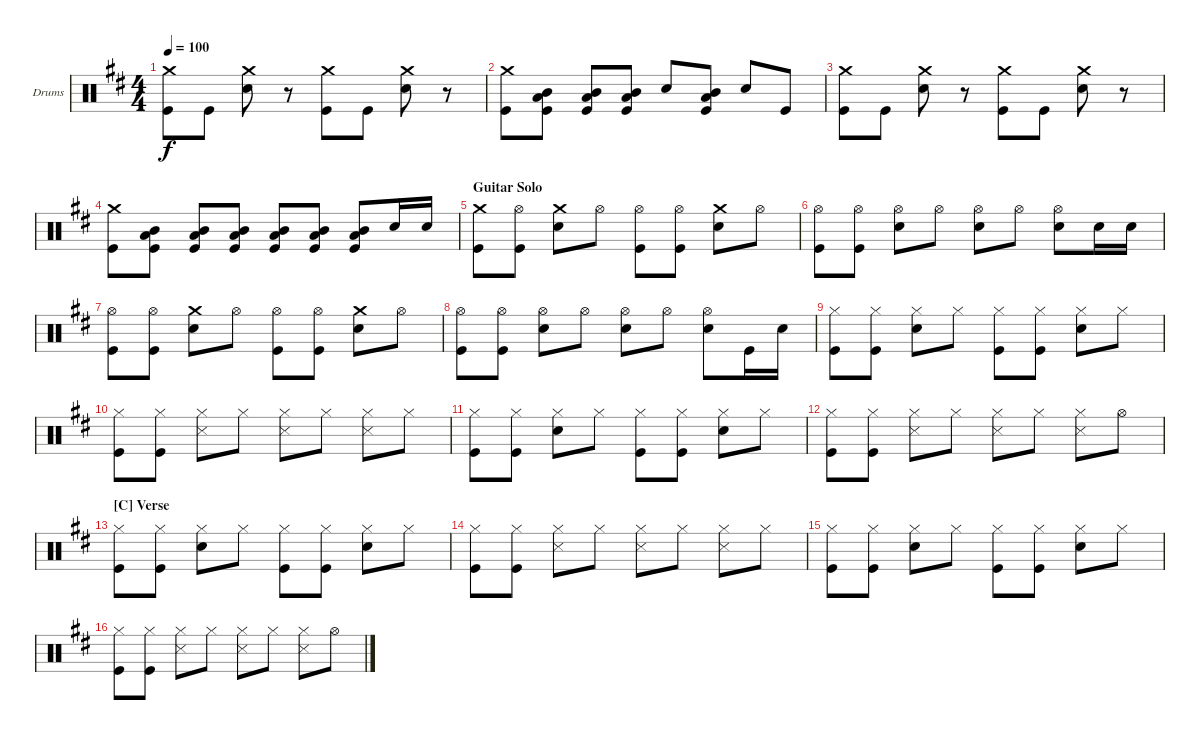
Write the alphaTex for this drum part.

\defaultSystemsLayout 4
\bracketExtendMode groupsimilarinstruments
\firstSystemTrackNameOrientation horizontal
\otherSystemsTrackNameOrientation horizontal
\track ("Drumkit" "Drums") {instrument percussion}
\staff {score}
\articulation defaults
\ts (4 4)
\tempo 100
\clef neutral
\scale
1.05044
\ks d
("Crash medium (hit)" "Kick (hit)").8{dy f} "Kick (hit)".8 ("Crash medium (hit)" "Snare (hit) 2").8 r.8 ("Crash medium (hit)" "Kick (hit)").8 "Kick (hit)".8 ("Crash medium (hit)" "Snare (hit) 2").8 r.8 |
\scale
0.949559 ("Crash medium (hit)" "Kick (hit)").8 ("Mid Tom (hit)" "Low Tom (hit)" "Kick (hit)").8 ("Mid Tom (hit)" "Low Tom (hit)" "Kick (hit)").8 ("Mid Tom (hit)" "Low Tom (hit)" "Kick (hit)").8 "Snare (hit) 2".8 ("Mid Tom (hit)" "Low Tom (hit)" "Kick (hit)").8 "Snare (hit) 2".8 "Kick (hit)".8 |
\scale
1.05044 ("Crash medium (hit)" "Kick (hit)").8 "Kick (hit)".8 ("Crash medium (hit)" "Snare (hit) 2").8 r.8 ("Crash medium (hit)" "Kick (hit)").8 "Kick (hit)".8 ("Crash medium (hit)" "Snare (hit) 2").8 r.8 |
\scale
0.949559 ("Crash medium (hit)" "Kick (hit)").8 ("Mid Tom (hit)" "Low Tom (hit)" "Kick (hit)").8 ("Mid Tom (hit)" "Low Tom (hit)" "Kick (hit)").8 ("Mid Tom (hit)" "Low Tom (hit)" "Kick (hit)").8 ("Mid Tom (hit)" "Low Tom (hit)" "Kick (hit)").8 ("Mid Tom (hit)" "Low Tom (hit)" "Kick (hit)").8 ("Mid Tom (hit)" "Low Tom (hit)" "Kick (hit)").8 "Snare (hit) 2".16 "Snare (hit) 2".16 |
\section ("" "Guitar Solo")
\scale
1.05044 ("Crash medium (hit)" "Kick (hit)").8 ("Hi-Hat (open)" "Kick (hit)").8 ("Crash medium (hit)" "Snare (hit) 2").8 "Hi-Hat (open)".8 ("Hi-Hat (open)" "Kick (hit)").8 ("Hi-Hat (open)" "Kick (hit)").8 ("Crash medium (hit)" "Snare (hit) 2").8 "Hi-Hat (open)".8 |
\scale
0.949559 ("Hi-Hat (open)" "Kick (hit)").8 ("Hi-Hat (open)" "Kick (hit)").8 ("Hi-Hat (open)" "Snare (hit) 2").8 "Hi-Hat (open)".8 ("Hi-Hat (open)" "Snare (hit) 2").8 "Hi-Hat (open)".8 ("Hi-Hat (open)" "Snare (hit) 2").8 "Snare (hit) 2".16 "Snare (hit) 2".16 |
\scale
1.05044 ("Hi-Hat (open)" "Kick (hit)").8 ("Hi-Hat (open)" "Kick (hit)").8 ("Crash medium (hit)" "Snare (hit) 2").8 "Hi-Hat (open)".8 ("Hi-Hat (open)" "Kick (hit)").8 ("Hi-Hat (open)" "Kick (hit)").8 ("Crash medium (hit)" "Snare (hit) 2").8 "Hi-Hat (open)".8 |
\scale
0.949559 ("Hi-Hat (open)" "Kick (hit)").8 ("Hi-Hat (open)" "Kick (hit)").8 ("Hi-Hat (open)" "Snare (hit) 2").8 "Hi-Hat (open)".8 ("Hi-Hat (open)" "Snare (hit) 2").8 "Hi-Hat (open)".8 ("Hi-Hat (open)" "Snare (hit) 2").8 "Kick (hit)".16 "Snare (hit) 2".16 |
\scale
1.05044 ("Hi-Hat (closed)" "Kick (hit)").8 ("Hi-Hat (closed)" "Kick (hit)").8 ("Hi-Hat (closed)" "Snare (hit) 2").8 "Hi-Hat (closed)".8 ("Hi-Hat (closed)" "Kick (hit)").8 ("Hi-Hat (closed)" "Kick (hit)").8 ("Hi-Hat (closed)" "Snare (hit) 2").8 "Hi-Hat (closed)".8 |
\scale
0.949559 ("Hi-Hat (closed)" "Kick (hit)").8 ("Hi-Hat (closed)" "Kick (hit)").8 ("Hi-Hat (closed)" "Snare (side stick) 3").8 "Hi-Hat (closed)".8 ("Hi-Hat (closed)" "Snare (side stick) 3").8 "Hi-Hat (closed)".8 ("Hi-Hat (closed)" "Snare (side stick) 3").8 "Hi-Hat (closed)".8 |
\scale
1.05044 ("Hi-Hat (closed)" "Kick (hit)").8 ("Hi-Hat (closed)" "Kick (hit)").8 ("Hi-Hat (closed)" "Snare (hit) 2").8 "Hi-Hat (closed)".8 ("Hi-Hat (closed)" "Kick (hit)").8 ("Hi-Hat (closed)" "Kick (hit)").8 ("Hi-Hat (closed)" "Snare (hit) 2").8 "Hi-Hat (closed)".8 |
\scale
0.949559 ("Hi-Hat (closed)" "Kick (hit)").8 ("Hi-Hat (closed)" "Kick (hit)").8 ("Hi-Hat (closed)" "Snare (side stick) 3").8 "Hi-Hat (closed)".8 ("Hi-Hat (closed)" "Snare (side stick) 3").8 "Hi-Hat (closed)".8 ("Hi-Hat (closed)" "Snare (side stick) 3").8 "Hi-Hat (open)".8 |
\section ("C" "Verse")
\scale
1.05044 ("Hi-Hat (closed)" "Kick (hit)").8 ("Hi-Hat (closed)" "Kick (hit)").8 ("Hi-Hat (closed)" "Snare (hit) 2").8 "Hi-Hat (closed)".8 ("Hi-Hat (closed)" "Kick (hit)").8 ("Hi-Hat (closed)" "Kick (hit)").8 ("Hi-Hat (closed)" "Snare (hit) 2").8 "Hi-Hat (closed)".8 |
\scale
0.949559 ("Hi-Hat (closed)" "Kick (hit)").8 ("Hi-Hat (closed)" "Kick (hit)").8 ("Hi-Hat (closed)" "Snare (side stick) 3").8 "Hi-Hat (closed)".8 ("Hi-Hat (closed)" "Snare (side stick) 3").8 "Hi-Hat (closed)".8 ("Hi-Hat (closed)" "Snare (side stick) 3").8 "Hi-Hat (closed)".8 |
\scale
1.05044 ("Hi-Hat (closed)" "Kick (hit)").8 ("Hi-Hat (closed)" "Kick (hit)").8 ("Hi-Hat (closed)" "Snare (hit) 2").8 "Hi-Hat (closed)".8 ("Hi-Hat (closed)" "Kick (hit)").8 ("Hi-Hat (closed)" "Kick (hit)").8 ("Hi-Hat (closed)" "Snare (hit) 2").8 "Hi-Hat (closed)".8 |
\scale
0.949559 ("Hi-Hat (closed)" "Kick (hit)").8 ("Hi-Hat (closed)" "Kick (hit)").8 ("Hi-Hat (closed)" "Snare (side stick) 3").8 "Hi-Hat (closed)".8 ("Hi-Hat (closed)" "Snare (side stick) 3").8 "Hi-Hat (closed)".8 ("Hi-Hat (closed)" "Snare (side stick) 3").8 "Hi-Hat (open)".8
